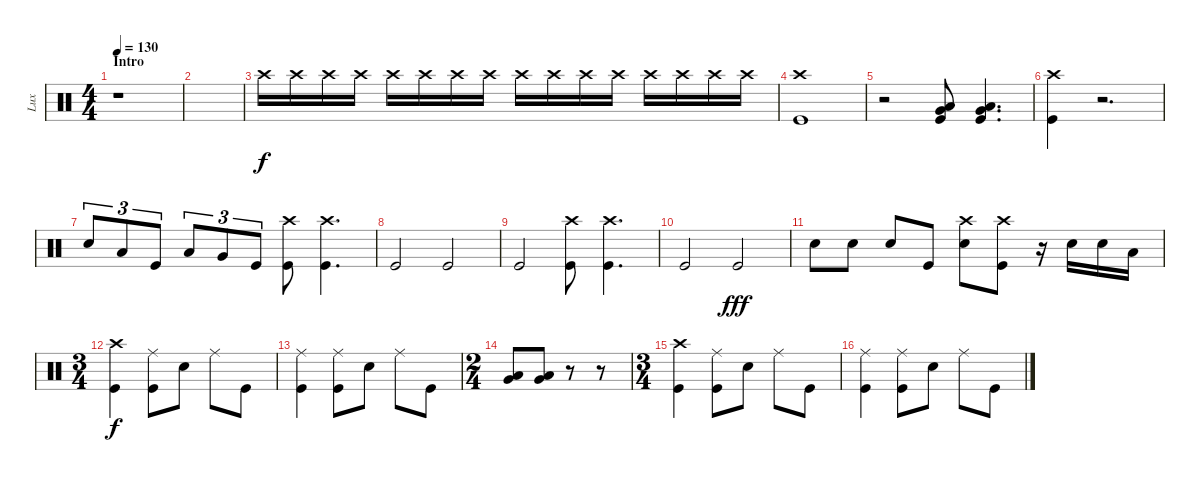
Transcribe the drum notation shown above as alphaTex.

\track ("Lux" "Lux") {instrument percussion}
\staff {score}
\articulation defaults
\ts (4 4)
\section ("" "Intro")
\tempo 130
\clef neutral
\ks c
r.1{dy f volume 0} |
|
"Crash high (hit)".16{volume 11} "Crash high (hit)".16 "Crash high (hit)".16 "Crash high (hit)".16 "Crash high (hit)".16 "Crash high (hit)".16 "Crash high (hit)".16 "Crash high (hit)".16 "Crash high (hit)".16 "Crash high (hit)".16 "Crash high (hit)".16 "Crash high (hit)".16 "Crash high (hit)".16 "Crash high (hit)".16 "Crash high (hit)".16 "Crash high (hit)".16 |
("Crash high (hit)" "Kick (hit)").1 |
r.2 ("Low Tom (hit)" "Very Low Tom (hit)" "Kick (hit)").8 ("Low Tom (hit)" "Very Low Tom (hit)" "Kick (hit)").4{d} |
("Crash high (hit)" "Kick (hit)").4 r.2{d} |
"Snare (hit) 2".8{tu (3 2)} "Low Tom (hit)".8{tu (3 2)} "Kick (hit)".8{tu (3 2)} "Low Tom (hit)".8{tu (3 2)} "Very Low Tom (hit)".8{tu (3 2)} "Kick (hit)".8{tu (3 2)} ("Crash high (hit)" "Kick (hit)").8 ("Crash high (hit)" "Kick (hit)").4{d} |
"Kick (hit)".2 "Kick (hit)".2 |
"Kick (hit)".2 ("Crash high (hit)" "Kick (hit)").8 ("Crash high (hit)" "Kick (hit)").4{d} |
"Kick (hit)".2 "Kick (hit)".2{dy fff} |
"Snare (hit) 2".8 "Snare (hit) 2".8 "Snare (hit) 2".8 "Kick (hit)".8 ("Crash high (hit)" "Snare (hit) 2").8 ("Crash high (hit)" "Kick (hit)").8 r.16 "Snare (hit) 2".16 "Snare (hit) 2".16 "Low Tom (hit)".16 |
\ts (3 4)
("Crash high (hit)" "Kick (hit)").4{dy f} ("Ride (middle)" "Kick (hit)").8 "Snare (hit) 2".8 "Ride (middle)".8 "Kick (hit)".8 |
("Ride (middle)" "Kick (hit)").4 ("Ride (middle)" "Kick (hit)").8 "Snare (hit) 2".8 "Ride (middle)".8 "Kick (hit)".8 |
\ts (2 4)
("Very Low Tom (hit)" "Low Tom (hit)").8 ("Very Low Tom (hit)" "Low Floor Tom (hit)").8 r.8 r.8 |
\ts (3 4)
("Crash high (hit)" "Kick (hit)").4 ("Ride (middle)" "Kick (hit)").8 "Snare (hit) 2".8 "Ride (middle)".8 "Kick (hit)".8 |
("Ride (middle)" "Kick (hit)").4 ("Ride (middle)" "Kick (hit)").8 "Snare (hit) 2".8 "Ride (middle)".8 "Kick (hit)".8
